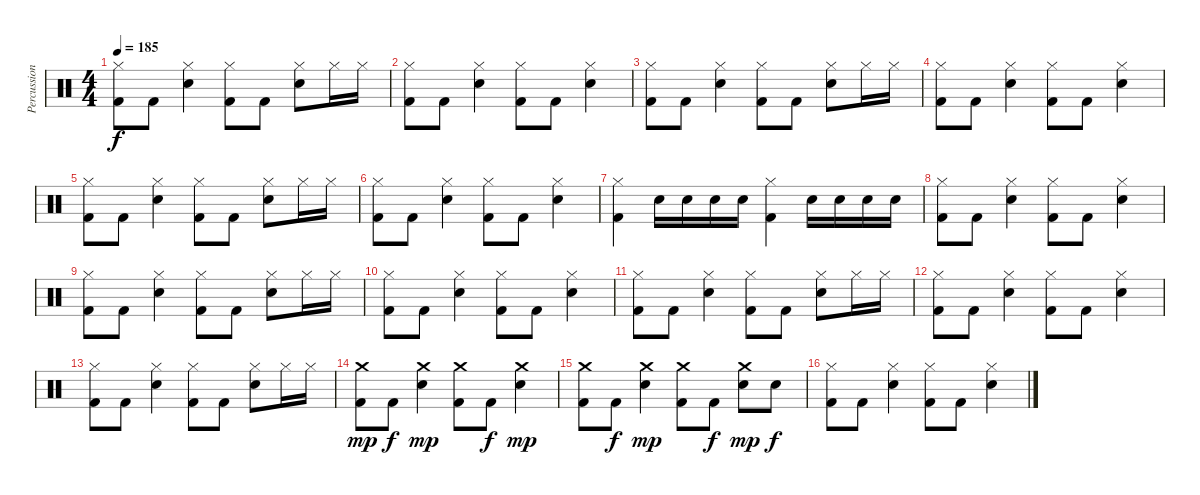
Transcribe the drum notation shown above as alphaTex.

\track ("Percussions" "Percussion") {instrument percussion}
\staff {score}
\articulation defaults
\ts (4 4)
\tempo 185
\clef neutral
\ks c
("Kick (hit) 2" "Hi-Hat (closed)").8{dy f} "Kick (hit) 2".8 ("Electric Snare (hit)" "Hi-Hat (closed)").4 ("Kick (hit) 2" "Hi-Hat (closed)").8 "Kick (hit) 2".8 ("Electric Snare (hit)" "Hi-Hat (closed)").8 "Hi-Hat (closed)".16 "Hi-Hat (closed)".16 |
("Kick (hit) 2" "Hi-Hat (closed)").8 "Kick (hit) 2".8 ("Electric Snare (hit)" "Hi-Hat (closed)").4 ("Kick (hit) 2" "Hi-Hat (closed)").8 "Kick (hit) 2".8 ("Electric Snare (hit)" "Hi-Hat (closed)").4 |
("Kick (hit) 2" "Hi-Hat (closed)").8 "Kick (hit) 2".8 ("Electric Snare (hit)" "Hi-Hat (closed)").4 ("Kick (hit) 2" "Hi-Hat (closed)").8 "Kick (hit) 2".8 ("Electric Snare (hit)" "Hi-Hat (closed)").8 "Hi-Hat (closed)".16 "Hi-Hat (closed)".16 |
("Kick (hit) 2" "Hi-Hat (closed)").8 "Kick (hit) 2".8 ("Electric Snare (hit)" "Hi-Hat (closed)").4 ("Kick (hit) 2" "Hi-Hat (closed)").8 "Kick (hit) 2".8 ("Electric Snare (hit)" "Hi-Hat (closed)").4 |
("Kick (hit) 2" "Hi-Hat (closed)").8 "Kick (hit) 2".8 ("Electric Snare (hit)" "Hi-Hat (closed)").4 ("Kick (hit) 2" "Hi-Hat (closed)").8 "Kick (hit) 2".8 ("Electric Snare (hit)" "Hi-Hat (closed)").8 "Hi-Hat (closed)".16 "Hi-Hat (closed)".16 |
("Kick (hit) 2" "Hi-Hat (closed)").8 "Kick (hit) 2".8 ("Electric Snare (hit)" "Hi-Hat (closed)").4 ("Kick (hit) 2" "Hi-Hat (closed)").8 "Kick (hit) 2".8 ("Electric Snare (hit)" "Hi-Hat (closed)").4 |
("Kick (hit) 2" "Hi-Hat (closed)").4 "Electric Snare (hit)".16 "Electric Snare (hit)".16 "Electric Snare (hit)".16 "Electric Snare (hit)".16 ("Kick (hit) 2" "Hi-Hat (closed)").4 "Electric Snare (hit)".16 "Electric Snare (hit)".16 "Electric Snare (hit)".16 "Electric Snare (hit)".16 |
("Kick (hit) 2" "Hi-Hat (closed)").8 "Kick (hit) 2".8 ("Electric Snare (hit)" "Hi-Hat (closed)").4 ("Kick (hit) 2" "Hi-Hat (closed)").8 "Kick (hit) 2".8 ("Electric Snare (hit)" "Hi-Hat (closed)").4 |
("Kick (hit) 2" "Hi-Hat (closed)").8 "Kick (hit) 2".8 ("Electric Snare (hit)" "Hi-Hat (closed)").4 ("Kick (hit) 2" "Hi-Hat (closed)").8 "Kick (hit) 2".8 ("Electric Snare (hit)" "Hi-Hat (closed)").8 "Hi-Hat (closed)".16 "Hi-Hat (closed)".16 |
("Kick (hit) 2" "Hi-Hat (closed)").8 "Kick (hit) 2".8 ("Electric Snare (hit)" "Hi-Hat (closed)").4 ("Kick (hit) 2" "Hi-Hat (closed)").8 "Kick (hit) 2".8 ("Electric Snare (hit)" "Hi-Hat (closed)").4 |
("Kick (hit) 2" "Hi-Hat (closed)").8 "Kick (hit) 2".8 ("Electric Snare (hit)" "Hi-Hat (closed)").4 ("Kick (hit) 2" "Hi-Hat (closed)").8 "Kick (hit) 2".8 ("Electric Snare (hit)" "Hi-Hat (closed)").8 "Hi-Hat (closed)".16 "Hi-Hat (closed)".16 |
("Kick (hit) 2" "Hi-Hat (closed)").8 "Kick (hit) 2".8 ("Electric Snare (hit)" "Hi-Hat (closed)").4 ("Kick (hit) 2" "Hi-Hat (closed)").8 "Kick (hit) 2".8 ("Electric Snare (hit)" "Hi-Hat (closed)").4 |
("Kick (hit) 2" "Hi-Hat (closed)").8 "Kick (hit) 2".8 ("Electric Snare (hit)" "Hi-Hat (closed)").4 ("Kick (hit) 2" "Hi-Hat (closed)").8 "Kick (hit) 2".8 ("Electric Snare (hit)" "Hi-Hat (closed)").8 "Hi-Hat (closed)".16 "Hi-Hat (closed)".16 |
("Kick (hit) 2" "Crash medium (hit)").8{dy mp} "Kick (hit) 2".8{dy f} ("Electric Snare (hit)" "Crash medium (hit)").4{dy mp} ("Kick (hit) 2" "Crash medium (hit)").8 "Kick (hit) 2".8{dy f} ("Electric Snare (hit)" "Crash medium (hit)").4{dy mp} |
("Kick (hit) 2" "Crash medium (hit)").8 "Kick (hit) 2".8{dy f} ("Electric Snare (hit)" "Crash medium (hit)").4{dy mp} ("Kick (hit) 2" "Crash medium (hit)").8 "Kick (hit) 2".8{dy f} ("Electric Snare (hit)" "Crash medium (hit)").8{dy mp} "Electric Snare (hit)".8{dy f} |
("Kick (hit) 2" "Hi-Hat (closed)").8 "Kick (hit) 2".8 ("Electric Snare (hit)" "Hi-Hat (closed)").4 ("Kick (hit) 2" "Hi-Hat (closed)").8 "Kick (hit) 2".8 ("Electric Snare (hit)" "Hi-Hat (closed)").4
